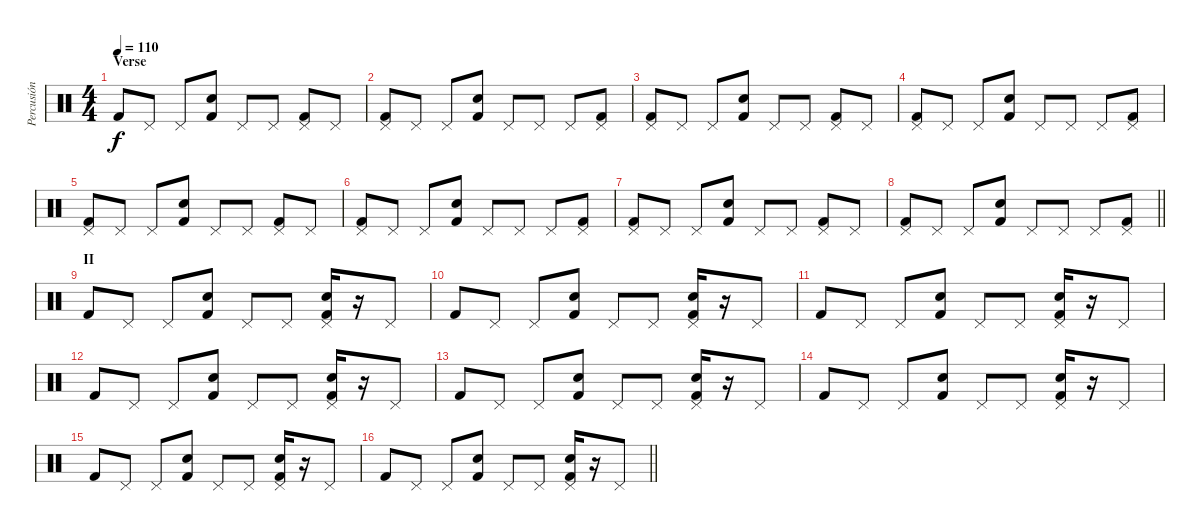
\track ("Percusión" "Percusión") {instrument percussion}
\staff {score}
\articulation defaults
\ts (4 4)
\section ("" "Verse")
\tempo 110
\clef neutral
\ks c "Kick (hit) 2".8{dy f} "Pedal Hi-Hat (hit)".8 "Pedal Hi-Hat (hit)".8
("Electric Snare (hit)" "Kick (hit) 2").8 "Pedal Hi-Hat (hit)".8 "Pedal Hi-Hat (hit)".8 ("Pedal Hi-Hat (hit)" "Kick (hit) 2").8 "Pedal Hi-Hat (hit)".8 |
("Pedal Hi-Hat (hit)" "Kick (hit) 2").8 "Pedal Hi-Hat (hit)".8 "Pedal Hi-Hat (hit)".8 ("Electric Snare (hit)" "Kick (hit) 2").8 "Pedal Hi-Hat (hit)".8 "Pedal Hi-Hat (hit)".8 "Pedal Hi-Hat (hit)".8 ("Pedal Hi-Hat (hit)" "Kick (hit) 2").8 |
("Pedal Hi-Hat (hit)" "Kick (hit) 2").8 "Pedal Hi-Hat (hit)".8 "Pedal Hi-Hat (hit)".8 ("Electric Snare (hit)" "Kick (hit) 2").8 "Pedal Hi-Hat (hit)".8 "Pedal Hi-Hat (hit)".8 ("Pedal Hi-Hat (hit)" "Kick (hit) 2").8 "Pedal Hi-Hat (hit)".8 |
("Pedal Hi-Hat (hit)" "Kick (hit) 2").8 "Pedal Hi-Hat (hit)".8 "Pedal Hi-Hat (hit)".8 ("Electric Snare (hit)" "Kick (hit) 2").8 "Pedal Hi-Hat (hit)".8 "Pedal Hi-Hat (hit)".8 "Pedal Hi-Hat (hit)".8 ("Pedal Hi-Hat (hit)" "Kick (hit) 2").8 |
("Pedal Hi-Hat (hit)" "Kick (hit) 2").8 "Pedal Hi-Hat (hit)".8 "Pedal Hi-Hat (hit)".8 ("Electric Snare (hit)" "Kick (hit) 2").8 "Pedal Hi-Hat (hit)".8 "Pedal Hi-Hat (hit)".8 ("Pedal Hi-Hat (hit)" "Kick (hit) 2").8 "Pedal Hi-Hat (hit)".8 |
("Pedal Hi-Hat (hit)" "Kick (hit) 2").8 "Pedal Hi-Hat (hit)".8 "Pedal Hi-Hat (hit)".8 ("Electric Snare (hit)" "Kick (hit) 2").8 "Pedal Hi-Hat (hit)".8 "Pedal Hi-Hat (hit)".8 "Pedal Hi-Hat (hit)".8 ("Pedal Hi-Hat (hit)" "Kick (hit) 2").8 |
("Pedal Hi-Hat (hit)" "Kick (hit) 2").8 "Pedal Hi-Hat (hit)".8 "Pedal Hi-Hat (hit)".8 ("Electric Snare (hit)" "Kick (hit) 2").8 "Pedal Hi-Hat (hit)".8 "Pedal Hi-Hat (hit)".8 ("Pedal Hi-Hat (hit)" "Kick (hit) 2").8 "Pedal Hi-Hat (hit)".8 |
\barLineRight lightlight
("Pedal Hi-Hat (hit)" "Kick (hit) 2").8 "Pedal Hi-Hat (hit)".8 "Pedal Hi-Hat (hit)".8 ("Electric Snare (hit)" "Kick (hit) 2").8 "Pedal Hi-Hat (hit)".8 "Pedal Hi-Hat (hit)".8 "Pedal Hi-Hat (hit)".8 ("Pedal Hi-Hat (hit)" "Kick (hit) 2").8 |
\section ("" "II")
"Kick (hit) 2".8 "Pedal Hi-Hat (hit)".8 "Pedal Hi-Hat (hit)".8 ("Electric Snare (hit)" "Kick (hit) 2").8 "Pedal Hi-Hat (hit)".8 "Pedal Hi-Hat (hit)".8 ("Hand Clap (hit)" "Pedal Hi-Hat (hit)" "Kick (hit) 2").16{bd 60} r.16 "Pedal Hi-Hat (hit)".8 |
"Kick (hit) 2".8 "Pedal Hi-Hat (hit)".8 "Pedal Hi-Hat (hit)".8 ("Electric Snare (hit)" "Kick (hit) 2").8 "Pedal Hi-Hat (hit)".8 "Pedal Hi-Hat (hit)".8 ("Hand Clap (hit)" "Pedal Hi-Hat (hit)" "Kick (hit) 2").16{bd 60} r.16 "Pedal Hi-Hat (hit)".8 |
"Kick (hit) 2".8 "Pedal Hi-Hat (hit)".8 "Pedal Hi-Hat (hit)".8 ("Electric Snare (hit)" "Kick (hit) 2").8 "Pedal Hi-Hat (hit)".8 "Pedal Hi-Hat (hit)".8 ("Hand Clap (hit)" "Pedal Hi-Hat (hit)" "Kick (hit) 2").16{bd 60} r.16 "Pedal Hi-Hat (hit)".8 |
"Kick (hit) 2".8 "Pedal Hi-Hat (hit)".8 "Pedal Hi-Hat (hit)".8 ("Electric Snare (hit)" "Kick (hit) 2").8 "Pedal Hi-Hat (hit)".8 "Pedal Hi-Hat (hit)".8 ("Hand Clap (hit)" "Pedal Hi-Hat (hit)" "Kick (hit) 2").16{bd 60} r.16 "Pedal Hi-Hat (hit)".8 |
"Kick (hit) 2".8 "Pedal Hi-Hat (hit)".8 "Pedal Hi-Hat (hit)".8 ("Electric Snare (hit)" "Kick (hit) 2").8 "Pedal Hi-Hat (hit)".8 "Pedal Hi-Hat (hit)".8 ("Hand Clap (hit)" "Pedal Hi-Hat (hit)" "Kick (hit) 2").16{bd 60} r.16 "Pedal Hi-Hat (hit)".8 |
"Kick (hit) 2".8 "Pedal Hi-Hat (hit)".8 "Pedal Hi-Hat (hit)".8 ("Electric Snare (hit)" "Kick (hit) 2").8 "Pedal Hi-Hat (hit)".8 "Pedal Hi-Hat (hit)".8 ("Hand Clap (hit)" "Pedal Hi-Hat (hit)" "Kick (hit) 2").16{bd 60} r.16 "Pedal Hi-Hat (hit)".8 |
"Kick (hit) 2".8 "Pedal Hi-Hat (hit)".8 "Pedal Hi-Hat (hit)".8 ("Electric Snare (hit)" "Kick (hit) 2").8 "Pedal Hi-Hat (hit)".8 "Pedal Hi-Hat (hit)".8 ("Hand Clap (hit)" "Pedal Hi-Hat (hit)" "Kick (hit) 2").16{bd 60} r.16 "Pedal Hi-Hat (hit)".8 |
\barLineRight lightlight "Kick (hit) 2".8 "Pedal Hi-Hat (hit)".8 "Pedal Hi-Hat (hit)".8
("Electric Snare (hit)" "Kick (hit) 2").8 "Pedal Hi-Hat (hit)".8 "Pedal Hi-Hat (hit)".8 ("Hand Clap (hit)" "Pedal Hi-Hat (hit)" "Kick (hit) 2").16{bd 60} r.16 "Pedal Hi-Hat (hit)".8
